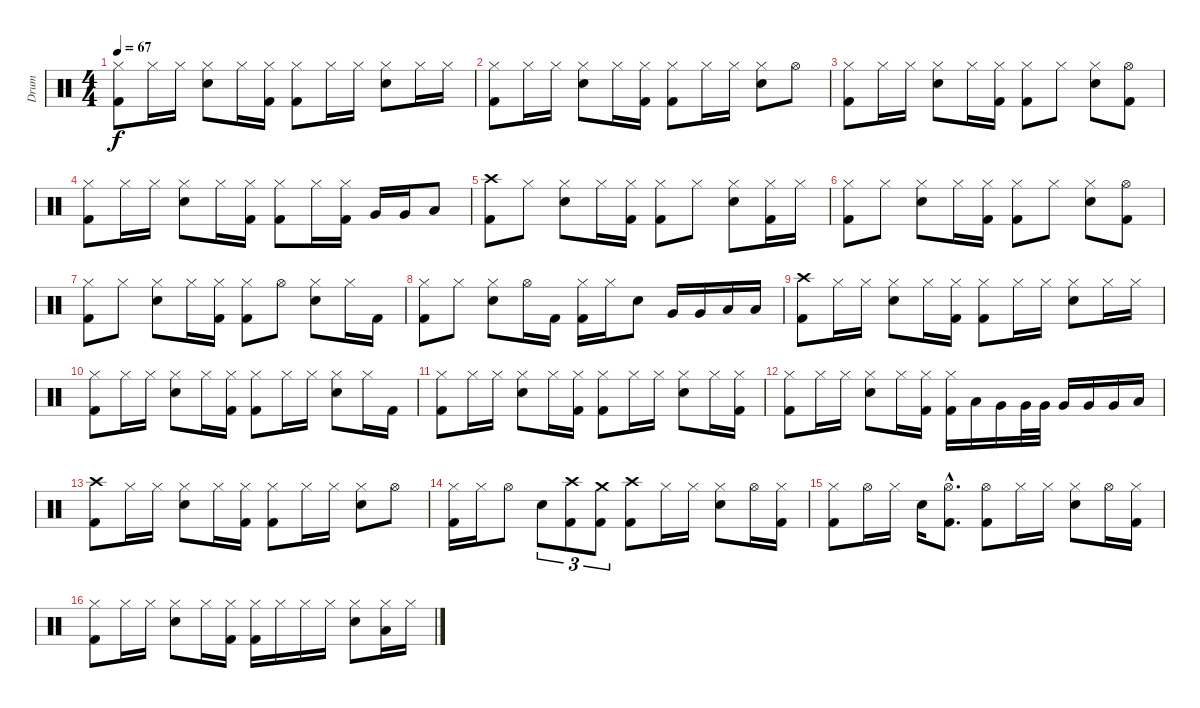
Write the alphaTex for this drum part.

\track ("Drum" "Drum") {instrument percussion}
\staff {score}
\articulation defaults
\ts (4 4)
\tempo 67
\clef neutral
\ks c
("Hi-Hat (closed)" "Kick (hit) 2").8{dy f} "Hi-Hat (closed)".16 "Hi-Hat (closed)".16 ("Hi-Hat (closed)" "Electric Snare (hit)").8 "Hi-Hat (closed)".16 ("Hi-Hat (closed)" "Kick (hit) 2").16 ("Hi-Hat (closed)" "Kick (hit) 2").8 "Hi-Hat (closed)".16 "Hi-Hat (closed)".16 ("Hi-Hat (closed)" "Electric Snare (hit)").8 "Hi-Hat (closed)".16 "Hi-Hat (closed)".16 |
("Hi-Hat (closed)" "Kick (hit) 2").8 "Hi-Hat (closed)".16 "Hi-Hat (closed)".16 ("Hi-Hat (closed)" "Electric Snare (hit)").8 "Hi-Hat (closed)".16 ("Hi-Hat (closed)" "Kick (hit) 2").16 ("Hi-Hat (closed)" "Kick (hit) 2").8 "Hi-Hat (closed)".16 "Hi-Hat (closed)".16 ("Hi-Hat (closed)" "Electric Snare (hit)").8 "Hi-Hat (open)".8 |
("Hi-Hat (closed)" "Kick (hit) 2").8 "Hi-Hat (closed)".16 "Hi-Hat (closed)".16 ("Hi-Hat (closed)" "Electric Snare (hit)").8 "Hi-Hat (closed)".16 ("Hi-Hat (closed)" "Kick (hit) 2").16 ("Hi-Hat (closed)" "Kick (hit) 2").8 "Hi-Hat (closed)".8 ("Hi-Hat (closed)" "Electric Snare (hit)").8 ("Hi-Hat (open)" "Kick (hit) 2").8 |
("Hi-Hat (closed)" "Kick (hit) 2").8 "Hi-Hat (closed)".16 "Hi-Hat (closed)".16 ("Hi-Hat (closed)" "Electric Snare (hit)").8 "Hi-Hat (closed)".16 ("Hi-Hat (closed)" "Kick (hit) 2").16 ("Hi-Hat (closed)" "Kick (hit) 2").8 "Hi-Hat (closed)".16 ("Hi-Hat (closed)" "Kick (hit) 2").16 "Very Low Tom (hit)".16 "Very Low Tom (hit)".16 "Low Floor Tom (hit)".8 |
("Crash high (hit)" "Kick (hit) 2").8 "Hi-Hat (closed)".8 ("Hi-Hat (closed)" "Electric Snare (hit)").8 "Hi-Hat (closed)".16 ("Hi-Hat (closed)" "Kick (hit) 2").16 ("Hi-Hat (closed)" "Kick (hit) 2").8 "Hi-Hat (closed)".8 ("Hi-Hat (closed)" "Electric Snare (hit)").8 ("Hi-Hat (closed)" "Kick (hit) 2").16 "Hi-Hat (closed)".16 |
("Hi-Hat (closed)" "Kick (hit) 2").8 "Hi-Hat (closed)".8 ("Hi-Hat (closed)" "Electric Snare (hit)").8 "Hi-Hat (closed)".16 ("Hi-Hat (closed)" "Kick (hit) 2").16 ("Hi-Hat (closed)" "Kick (hit) 2").8 "Hi-Hat (closed)".8 ("Hi-Hat (closed)" "Electric Snare (hit)").8 ("Hi-Hat (open)" "Kick (hit) 2").8 |
("Hi-Hat (closed)" "Kick (hit) 2").8 "Hi-Hat (closed)".8 ("Hi-Hat (closed)" "Electric Snare (hit)").8 "Hi-Hat (closed)".16 ("Hi-Hat (closed)" "Kick (hit) 2").16 ("Hi-Hat (closed)" "Kick (hit) 2").8 "Hi-Hat (open)".8 ("Hi-Hat (closed)" "Electric Snare (hit)").8 "Hi-Hat (closed)".16 "Kick (hit) 2".16 |
("Hi-Hat (closed)" "Kick (hit) 2").8 "Hi-Hat (closed)".8 ("Hi-Hat (closed)" "Electric Snare (hit)").8 "Hi-Hat (open)".16 "Kick (hit) 2".16 ("Hi-Hat (closed)" "Kick (hit) 2").16 "Hi-Hat (closed)".16 "Electric Snare (hit)".8 "Very Low Tom (hit)".16 "Very Low Tom (hit)".16 "Low Floor Tom (hit)".16 "Low Floor Tom (hit)".16 |
("Crash high (hit)" "Kick (hit) 2").8 "Hi-Hat (closed)".16 "Hi-Hat (closed)".16 ("Hi-Hat (closed)" "Electric Snare (hit)").8 "Hi-Hat (closed)".16 ("Hi-Hat (closed)" "Kick (hit) 2").16 ("Hi-Hat (closed)" "Kick (hit) 2").8 "Hi-Hat (closed)".16 "Hi-Hat (closed)".16 ("Hi-Hat (closed)" "Electric Snare (hit)").8 "Hi-Hat (closed)".16 "Hi-Hat (closed)".16 |
("Hi-Hat (closed)" "Kick (hit) 2").8 "Hi-Hat (closed)".16 "Hi-Hat (closed)".16 ("Hi-Hat (closed)" "Electric Snare (hit)").8 "Hi-Hat (closed)".16 ("Hi-Hat (closed)" "Kick (hit) 2").16 ("Hi-Hat (closed)" "Kick (hit) 2").8 "Hi-Hat (closed)".16 "Hi-Hat (closed)".16 ("Hi-Hat (closed)" "Electric Snare (hit)").8 "Hi-Hat (closed)".16 "Kick (hit) 2".16 |
("Hi-Hat (closed)" "Kick (hit) 2").8 "Hi-Hat (closed)".16 "Hi-Hat (closed)".16 ("Hi-Hat (closed)" "Electric Snare (hit)").8 "Hi-Hat (closed)".16 ("Hi-Hat (closed)" "Kick (hit) 2").16 ("Hi-Hat (closed)" "Kick (hit) 2").8 "Hi-Hat (closed)".16 "Hi-Hat (closed)".16 ("Hi-Hat (closed)" "Electric Snare (hit)").8 "Hi-Hat (closed)".16 ("Hi-Hat (closed)" "Kick (hit) 2").16 |
("Hi-Hat (closed)" "Kick (hit) 2").8 "Hi-Hat (closed)".16 "Hi-Hat (closed)".16 ("Hi-Hat (closed)" "Electric Snare (hit)").8 "Hi-Hat (closed)".16 ("Hi-Hat (closed)" "Kick (hit) 2").16 ("Hi-Hat (closed)" "Kick (hit) 2").16 "Low Tom (hit)".16 "Very Low Tom (hit)".16 "Very Low Tom (hit)".32 "Very Low Tom (hit)".32 "Very Low Tom (hit)".16 "Very Low Tom (hit)".16 "Very Low Tom (hit)".16 "Low Floor Tom (hit)".16 |
("Crash high (hit)" "Kick (hit) 2").8 "Hi-Hat (closed)".16 "Hi-Hat (closed)".16 ("Hi-Hat (closed)" "Electric Snare (hit)").8 "Hi-Hat (closed)".16 ("Hi-Hat (closed)" "Kick (hit) 2").16 ("Hi-Hat (closed)" "Kick (hit) 2").8 "Hi-Hat (closed)".16 "Hi-Hat (closed)".16 ("Hi-Hat (closed)" "Electric Snare (hit)").8 "Hi-Hat (open)".8 |
("Hi-Hat (closed)" "Kick (hit) 2").16 "Hi-Hat (closed)".16 "Hi-Hat (open)".8 "Electric Snare (hit)".8{tu (3 2)} ("Crash high (hit)" "Kick (hit) 2").8{tu (3 2)} ("Crash medium (hit)" "Kick (hit) 2").8{tu (3 2)} ("Crash high (hit)" "Kick (hit) 2").8 "Hi-Hat (closed)".16 "Hi-Hat (closed)".16 ("Hi-Hat (closed)" "Electric Snare (hit)").8 "Hi-Hat (open)".16 ("Hi-Hat (closed)" "Kick (hit) 2").16 |
("Hi-Hat (closed)" "Kick (hit) 2").8 "Hi-Hat (open)".16 "Hi-Hat (closed)".16 "Electric Snare (hit)".16 ("Hi-Hat (open)"{hac} "Kick (hit) 2"{hac}).8{d} ("Hi-Hat (open)" "Kick (hit) 2").8 "Hi-Hat (closed)".16 "Hi-Hat (closed)".16 ("Hi-Hat (closed)" "Electric Snare (hit)").8 "Hi-Hat (open)".16 ("Hi-Hat (closed)" "Kick (hit) 2").16 |
("Hi-Hat (closed)" "Kick (hit) 2").8 "Hi-Hat (closed)".16 "Hi-Hat (closed)".16 ("Hi-Hat (closed)" "Electric Snare (hit)").8 "Hi-Hat (closed)".16 ("Hi-Hat (closed)" "Kick (hit) 2").16 ("Hi-Hat (closed)" "Kick (hit) 2").16 "Hi-Hat (closed)".16 "Hi-Hat (closed)".16 "Hi-Hat (closed)".16 ("Hi-Hat (closed)" "Electric Snare (hit)").8 ("Hi-Hat (closed)" "Low Floor Tom (hit)").16 "Hi-Hat (closed)".16
